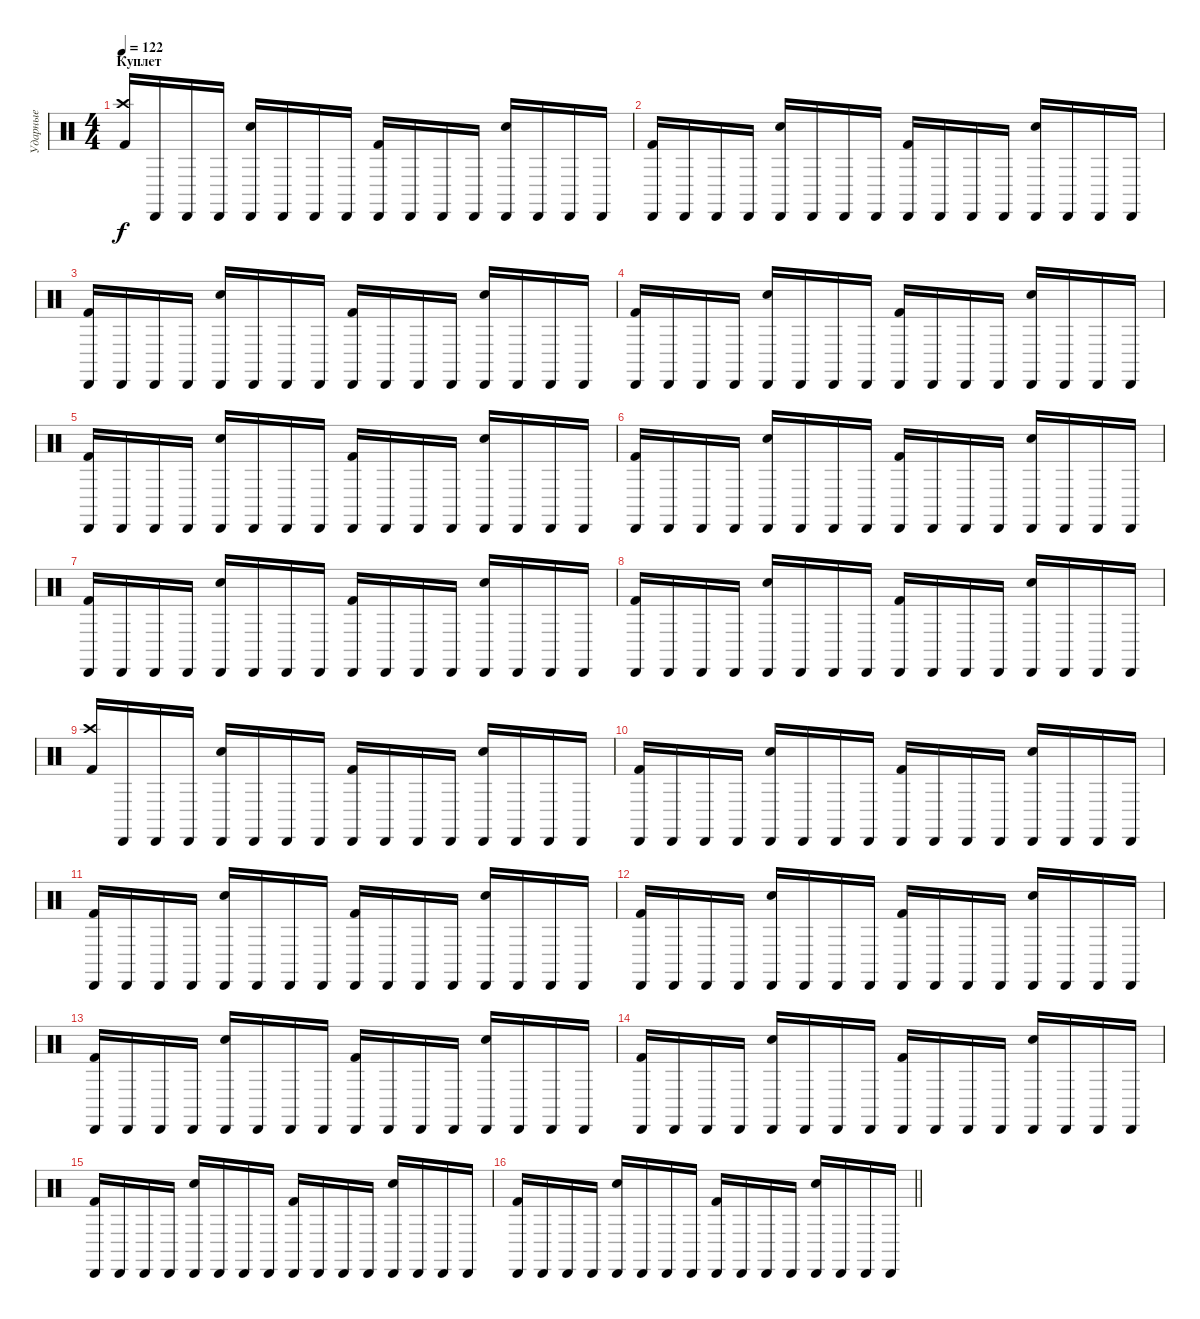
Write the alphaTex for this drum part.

\track ("Ударные" "Ударные") {instrument percussion}
\staff {score}
\articulation defaults
\ts (4 4)
\section ("" "Куплет")
\tempo 122
\clef neutral
\ks c
("Crash high (hit)" "Kick (hit) 2").16{dy f} "Cabasa (hit)".16 "Cabasa (hit)".16 "Cabasa (hit)".16 ("Cabasa (hit)" "Snare (hit) 2").16 "Cabasa (hit)".16 "Cabasa (hit)".16 "Cabasa (hit)".16 ("Cabasa (hit)" "Kick (hit) 2").16 "Cabasa (hit)".16 "Cabasa (hit)".16 "Cabasa (hit)".16 ("Cabasa (hit)" "Snare (hit) 2").16 "Cabasa (hit)".16 "Cabasa (hit)".16 "Cabasa (hit)".16 |
("Cabasa (hit)" "Kick (hit) 2").16 "Cabasa (hit)".16 "Cabasa (hit)".16 "Cabasa (hit)".16 ("Cabasa (hit)" "Snare (hit) 2").16 "Cabasa (hit)".16 "Cabasa (hit)".16 "Cabasa (hit)".16 ("Cabasa (hit)" "Kick (hit) 2").16 "Cabasa (hit)".16 "Cabasa (hit)".16 "Cabasa (hit)".16 ("Cabasa (hit)" "Snare (hit) 2").16 "Cabasa (hit)".16 "Cabasa (hit)".16 "Cabasa (hit)".16 |
("Cabasa (hit)" "Kick (hit) 2").16 "Cabasa (hit)".16 "Cabasa (hit)".16 "Cabasa (hit)".16 ("Cabasa (hit)" "Snare (hit) 2").16 "Cabasa (hit)".16 "Cabasa (hit)".16 "Cabasa (hit)".16 ("Cabasa (hit)" "Kick (hit) 2").16 "Cabasa (hit)".16 "Cabasa (hit)".16 "Cabasa (hit)".16 ("Cabasa (hit)" "Snare (hit) 2").16 "Cabasa (hit)".16 "Cabasa (hit)".16 "Cabasa (hit)".16 |
("Cabasa (hit)" "Kick (hit) 2").16 "Cabasa (hit)".16 "Cabasa (hit)".16 "Cabasa (hit)".16 ("Cabasa (hit)" "Snare (hit) 2").16 "Cabasa (hit)".16 "Cabasa (hit)".16 "Cabasa (hit)".16 ("Cabasa (hit)" "Kick (hit) 2").16 "Cabasa (hit)".16 "Cabasa (hit)".16 "Cabasa (hit)".16 ("Cabasa (hit)" "Snare (hit) 2").16 "Cabasa (hit)".16 "Cabasa (hit)".16 "Cabasa (hit)".16 |
("Cabasa (hit)" "Kick (hit) 2").16 "Cabasa (hit)".16 "Cabasa (hit)".16 "Cabasa (hit)".16 ("Cabasa (hit)" "Snare (hit) 2").16 "Cabasa (hit)".16 "Cabasa (hit)".16 "Cabasa (hit)".16 ("Cabasa (hit)" "Kick (hit) 2").16 "Cabasa (hit)".16 "Cabasa (hit)".16 "Cabasa (hit)".16 ("Cabasa (hit)" "Snare (hit) 2").16 "Cabasa (hit)".16 "Cabasa (hit)".16 "Cabasa (hit)".16 |
("Cabasa (hit)" "Kick (hit) 2").16 "Cabasa (hit)".16 "Cabasa (hit)".16 "Cabasa (hit)".16 ("Cabasa (hit)" "Snare (hit) 2").16 "Cabasa (hit)".16 "Cabasa (hit)".16 "Cabasa (hit)".16 ("Cabasa (hit)" "Kick (hit) 2").16 "Cabasa (hit)".16 "Cabasa (hit)".16 "Cabasa (hit)".16 ("Cabasa (hit)" "Snare (hit) 2").16 "Cabasa (hit)".16 "Cabasa (hit)".16 "Cabasa (hit)".16 |
("Cabasa (hit)" "Kick (hit) 2").16 "Cabasa (hit)".16 "Cabasa (hit)".16 "Cabasa (hit)".16 ("Cabasa (hit)" "Snare (hit) 2").16 "Cabasa (hit)".16 "Cabasa (hit)".16 "Cabasa (hit)".16 ("Cabasa (hit)" "Kick (hit) 2").16 "Cabasa (hit)".16 "Cabasa (hit)".16 "Cabasa (hit)".16 ("Cabasa (hit)" "Snare (hit) 2").16 "Cabasa (hit)".16 "Cabasa (hit)".16 "Cabasa (hit)".16 |
("Cabasa (hit)" "Kick (hit) 2").16 "Cabasa (hit)".16 "Cabasa (hit)".16 "Cabasa (hit)".16 ("Cabasa (hit)" "Snare (hit) 2").16 "Cabasa (hit)".16 "Cabasa (hit)".16 "Cabasa (hit)".16 ("Cabasa (hit)" "Kick (hit) 2").16 "Cabasa (hit)".16 "Cabasa (hit)".16 "Cabasa (hit)".16 ("Cabasa (hit)" "Snare (hit) 2").16 "Cabasa (hit)".16 "Cabasa (hit)".16 "Cabasa (hit)".16 |
("Crash high (hit)" "Kick (hit) 2").16 "Cabasa (hit)".16 "Cabasa (hit)".16 "Cabasa (hit)".16 ("Cabasa (hit)" "Snare (hit) 2").16 "Cabasa (hit)".16 "Cabasa (hit)".16 "Cabasa (hit)".16 ("Cabasa (hit)" "Kick (hit) 2").16 "Cabasa (hit)".16 "Cabasa (hit)".16 "Cabasa (hit)".16 ("Cabasa (hit)" "Snare (hit) 2").16 "Cabasa (hit)".16 "Cabasa (hit)".16 "Cabasa (hit)".16 |
("Cabasa (hit)" "Kick (hit) 2").16 "Cabasa (hit)".16 "Cabasa (hit)".16 "Cabasa (hit)".16 ("Cabasa (hit)" "Snare (hit) 2").16 "Cabasa (hit)".16 "Cabasa (hit)".16 "Cabasa (hit)".16 ("Cabasa (hit)" "Kick (hit) 2").16 "Cabasa (hit)".16 "Cabasa (hit)".16 "Cabasa (hit)".16 ("Cabasa (hit)" "Snare (hit) 2").16 "Cabasa (hit)".16 "Cabasa (hit)".16 "Cabasa (hit)".16 |
("Cabasa (hit)" "Kick (hit) 2").16 "Cabasa (hit)".16 "Cabasa (hit)".16 "Cabasa (hit)".16 ("Cabasa (hit)" "Snare (hit) 2").16 "Cabasa (hit)".16 "Cabasa (hit)".16 "Cabasa (hit)".16 ("Cabasa (hit)" "Kick (hit) 2").16 "Cabasa (hit)".16 "Cabasa (hit)".16 "Cabasa (hit)".16 ("Cabasa (hit)" "Snare (hit) 2").16 "Cabasa (hit)".16 "Cabasa (hit)".16 "Cabasa (hit)".16 |
("Cabasa (hit)" "Kick (hit) 2").16 "Cabasa (hit)".16 "Cabasa (hit)".16 "Cabasa (hit)".16 ("Cabasa (hit)" "Snare (hit) 2").16 "Cabasa (hit)".16 "Cabasa (hit)".16 "Cabasa (hit)".16 ("Cabasa (hit)" "Kick (hit) 2").16 "Cabasa (hit)".16 "Cabasa (hit)".16 "Cabasa (hit)".16 ("Cabasa (hit)" "Snare (hit) 2").16 "Cabasa (hit)".16 "Cabasa (hit)".16 "Cabasa (hit)".16 |
("Cabasa (hit)" "Kick (hit) 2").16 "Cabasa (hit)".16 "Cabasa (hit)".16 "Cabasa (hit)".16 ("Cabasa (hit)" "Snare (hit) 2").16 "Cabasa (hit)".16 "Cabasa (hit)".16 "Cabasa (hit)".16 ("Cabasa (hit)" "Kick (hit) 2").16 "Cabasa (hit)".16 "Cabasa (hit)".16 "Cabasa (hit)".16 ("Cabasa (hit)" "Snare (hit) 2").16 "Cabasa (hit)".16 "Cabasa (hit)".16 "Cabasa (hit)".16 |
("Cabasa (hit)" "Kick (hit) 2").16 "Cabasa (hit)".16 "Cabasa (hit)".16 "Cabasa (hit)".16 ("Cabasa (hit)" "Snare (hit) 2").16 "Cabasa (hit)".16 "Cabasa (hit)".16 "Cabasa (hit)".16 ("Cabasa (hit)" "Kick (hit) 2").16 "Cabasa (hit)".16 "Cabasa (hit)".16 "Cabasa (hit)".16 ("Cabasa (hit)" "Snare (hit) 2").16 "Cabasa (hit)".16 "Cabasa (hit)".16 "Cabasa (hit)".16 |
("Cabasa (hit)" "Kick (hit) 2").16 "Cabasa (hit)".16 "Cabasa (hit)".16 "Cabasa (hit)".16 ("Cabasa (hit)" "Snare (hit) 2").16 "Cabasa (hit)".16 "Cabasa (hit)".16 "Cabasa (hit)".16 ("Cabasa (hit)" "Kick (hit) 2").16 "Cabasa (hit)".16 "Cabasa (hit)".16 "Cabasa (hit)".16 ("Cabasa (hit)" "Snare (hit) 2").16 "Cabasa (hit)".16 "Cabasa (hit)".16 "Cabasa (hit)".16 |
\barLineRight lightlight
("Cabasa (hit)" "Kick (hit) 2").16 "Cabasa (hit)".16 "Cabasa (hit)".16 "Cabasa (hit)".16 ("Cabasa (hit)" "Snare (hit) 2").16 "Cabasa (hit)".16 "Cabasa (hit)".16 "Cabasa (hit)".16 ("Cabasa (hit)" "Kick (hit) 2").16 "Cabasa (hit)".16 "Cabasa (hit)".16 "Cabasa (hit)".16 ("Cabasa (hit)" "Snare (hit) 2").16 "Cabasa (hit)".16 "Cabasa (hit)".16 "Cabasa (hit)".16
